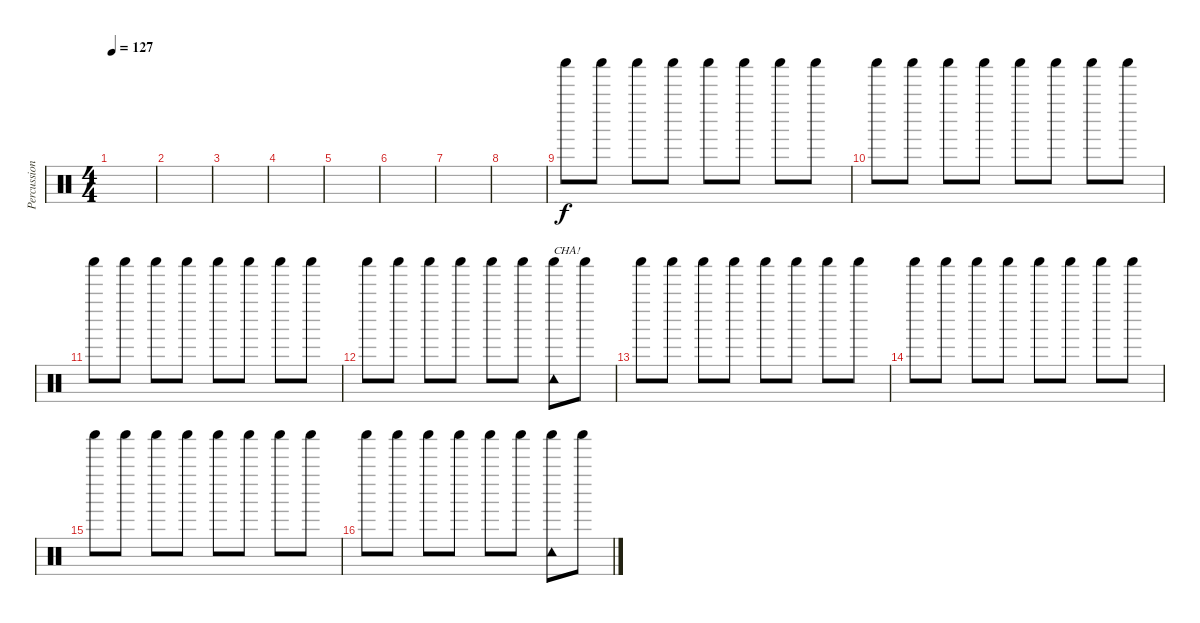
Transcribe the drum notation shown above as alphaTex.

\track ("Percussion II" "Percussion") {instrument percussion}
\staff {score}
\articulation defaults
\ts (4 4)
\tempo 127
\clef neutral
\ks c
|
|
|
|
|
|
|
|
"Shaker (hit)".8 "Shaker (hit)".8 "Shaker (hit)".8 "Shaker (hit)".8 "Shaker (hit)".8 "Shaker (hit)".8 "Shaker (hit)".8 "Shaker (hit)".8 |
"Shaker (hit)".8 "Shaker (hit)".8 "Shaker (hit)".8 "Shaker (hit)".8 "Shaker (hit)".8 "Shaker (hit)".8 "Shaker (hit)".8 "Shaker (hit)".8 |
"Shaker (hit)".8 "Shaker (hit)".8 "Shaker (hit)".8 "Shaker (hit)".8 "Shaker (hit)".8 "Shaker (hit)".8 "Shaker (hit)".8 "Shaker (hit)".8 |
"Shaker (hit)".8 "Shaker (hit)".8 "Shaker (hit)".8 "Shaker (hit)".8 "Shaker (hit)".8 "Shaker (hit)".8 ("Shaker (hit)" "Tambourine (hit)").8{txt "CHA!"} "Shaker (hit)".8 |
"Shaker (hit)".8 "Shaker (hit)".8 "Shaker (hit)".8 "Shaker (hit)".8 "Shaker (hit)".8 "Shaker (hit)".8 "Shaker (hit)".8 "Shaker (hit)".8 |
"Shaker (hit)".8 "Shaker (hit)".8 "Shaker (hit)".8 "Shaker (hit)".8 "Shaker (hit)".8 "Shaker (hit)".8 "Shaker (hit)".8 "Shaker (hit)".8 |
"Shaker (hit)".8 "Shaker (hit)".8 "Shaker (hit)".8 "Shaker (hit)".8 "Shaker (hit)".8 "Shaker (hit)".8 "Shaker (hit)".8 "Shaker (hit)".8 |
"Shaker (hit)".8 "Shaker (hit)".8 "Shaker (hit)".8 "Shaker (hit)".8 "Shaker (hit)".8 "Shaker (hit)".8 ("Shaker (hit)" "Tambourine (hit)").8 "Shaker (hit)".8
